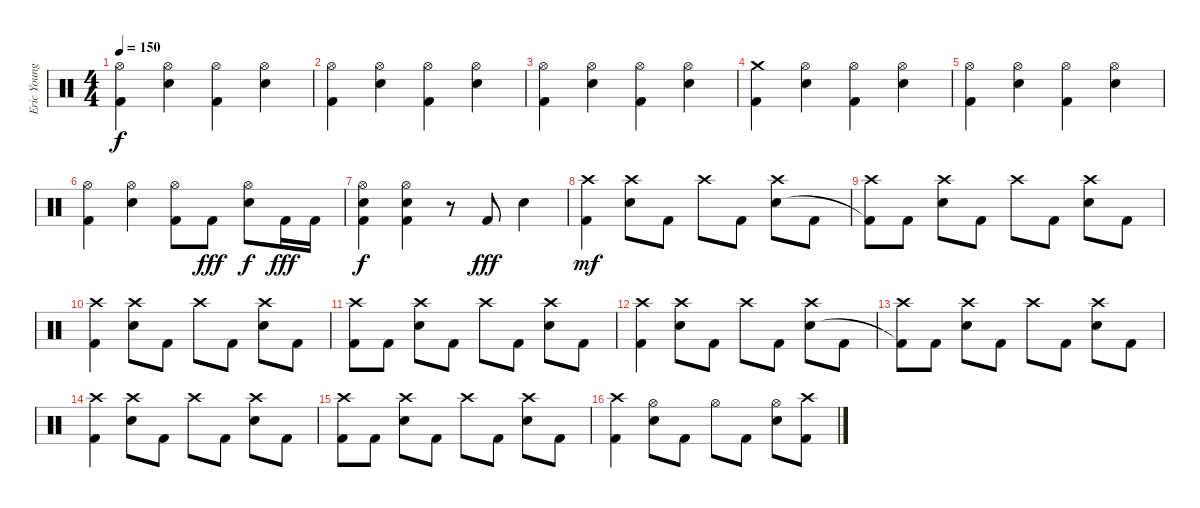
\track ("Eric Young" "Eric Young") {instrument percussion}
\staff {score}
\articulation defaults
\ts (4 4)
\tempo 150
\clef neutral
\ks c
("Hi-Hat (open)" "Kick (hit) 2").4{dy f} ("Hi-Hat (open)" "Electric Snare (hit)").4 ("Hi-Hat (open)" "Kick (hit) 2").4 ("Hi-Hat (open)" "Electric Snare (hit)").4 |
("Hi-Hat (open)" "Kick (hit) 2").4 ("Hi-Hat (open)" "Electric Snare (hit)").4 ("Hi-Hat (open)" "Kick (hit) 2").4 ("Hi-Hat (open)" "Electric Snare (hit)").4 |
("Hi-Hat (open)" "Kick (hit) 2").4 ("Hi-Hat (open)" "Electric Snare (hit)").4 ("Hi-Hat (open)" "Kick (hit) 2").4 ("Hi-Hat (open)" "Electric Snare (hit)").4 |
("Crash medium (hit)" "Kick (hit) 2").4 ("Hi-Hat (open)" "Electric Snare (hit)").4 ("Hi-Hat (open)" "Kick (hit) 2").4 ("Hi-Hat (open)" "Electric Snare (hit)").4 |
("Hi-Hat (open)" "Kick (hit) 2").4 ("Hi-Hat (open)" "Electric Snare (hit)").4 ("Hi-Hat (open)" "Kick (hit) 2").4 ("Hi-Hat (open)" "Electric Snare (hit)").4 |
("Hi-Hat (open)" "Kick (hit) 2").4 ("Hi-Hat (open)" "Electric Snare (hit)").4 ("Hi-Hat (open)" "Kick (hit) 2").8 "Kick (hit) 2".8{dy fff} ("Hi-Hat (open)" "Electric Snare (hit)").8{dy f} "Kick (hit) 2".16{dy fff} "Kick (hit) 2".16 |
("Hi-Hat (open)" "Electric Snare (hit)" "Kick (hit) 2").4{dy f} ("Hi-Hat (open)" "Electric Snare (hit)" "Kick (hit) 2").4 r.8 "Kick (hit) 2".8{dy fff} "Electric Snare (hit)".4 |
("Crash high (hit)" "Kick (hit) 2").4{dy mf} ("Crash high (hit)" "Electric Snare (hit)").8 "Kick (hit) 2".8 "Crash high (hit)".8 "Kick (hit) 2".8 ("Crash high (hit)" "Electric Snare (hit)").8 "Kick (hit) 2".8 |
("Crash high (hit)" "Kick (hit) 2"{t}).8 "Kick (hit) 2".8 ("Crash high (hit)" "Electric Snare (hit)").8 "Kick (hit) 2".8 "Crash high (hit)".8 "Kick (hit) 2".8 ("Crash high (hit)" "Electric Snare (hit)").8 "Kick (hit) 2".8 |
("Crash high (hit)" "Kick (hit) 2").4 ("Crash high (hit)" "Electric Snare (hit)").8 "Kick (hit) 2".8 "Crash high (hit)".8 "Kick (hit) 2".8 ("Crash high (hit)" "Electric Snare (hit)").8 "Kick (hit) 2".8 |
("Crash high (hit)" "Kick (hit) 2").8 "Kick (hit) 2".8 ("Crash high (hit)" "Electric Snare (hit)").8 "Kick (hit) 2".8 "Crash high (hit)".8 "Kick (hit) 2".8 ("Crash high (hit)" "Electric Snare (hit)").8 "Kick (hit) 2".8 |
("Crash high (hit)" "Kick (hit) 2").4 ("Crash high (hit)" "Electric Snare (hit)").8 "Kick (hit) 2".8 "Crash high (hit)".8 "Kick (hit) 2".8 ("Crash high (hit)" "Electric Snare (hit)").8 "Kick (hit) 2".8 |
("Crash high (hit)" "Kick (hit) 2"{t}).8 "Kick (hit) 2".8 ("Crash high (hit)" "Electric Snare (hit)").8 "Kick (hit) 2".8 "Crash high (hit)".8 "Kick (hit) 2".8 ("Crash high (hit)" "Electric Snare (hit)").8 "Kick (hit) 2".8 |
("Crash high (hit)" "Kick (hit) 2").4 ("Crash high (hit)" "Electric Snare (hit)").8 "Kick (hit) 2".8 "Crash high (hit)".8 "Kick (hit) 2".8 ("Crash high (hit)" "Electric Snare (hit)").8 "Kick (hit) 2".8 |
("Crash high (hit)" "Kick (hit) 2").8 "Kick (hit) 2".8 ("Crash high (hit)" "Electric Snare (hit)").8 "Kick (hit) 2".8 "Crash high (hit)".8 "Kick (hit) 2".8 ("Crash high (hit)" "Electric Snare (hit)").8 "Kick (hit) 2".8 |
("Crash high (hit)" "Kick (hit) 2").4 ("Hi-Hat (open)" "Electric Snare (hit)").8 "Kick (hit) 2".8 "Hi-Hat (open)".8 "Kick (hit) 2".8 ("Hi-Hat (open)" "Electric Snare (hit)").8 ("Crash high (hit)" "Kick (hit) 2").8
